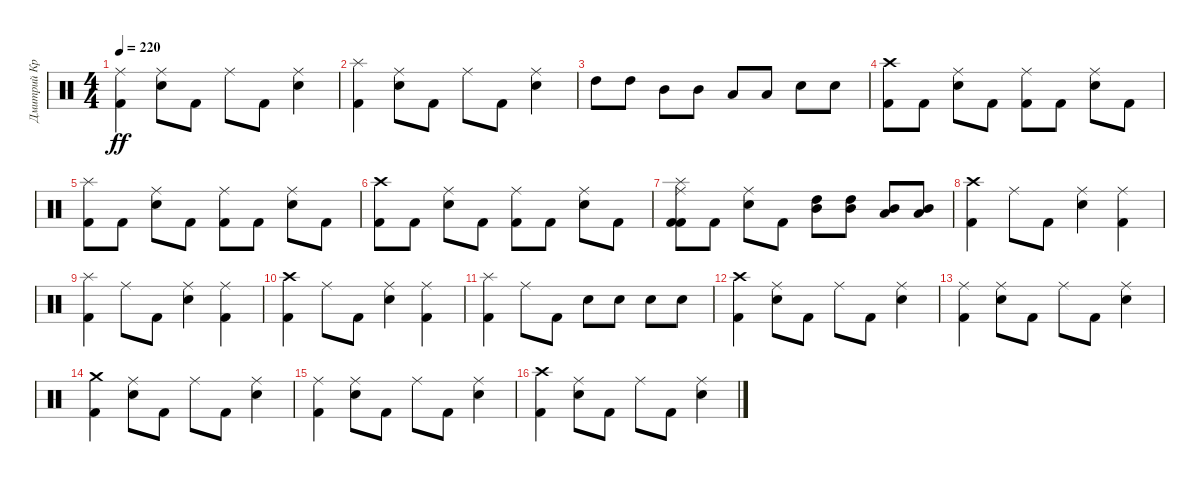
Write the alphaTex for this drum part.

\track ("Дмитрий Кривенков" "Дмитрий Кр") {instrument percussion}
\staff {score}
\articulation defaults
\ts (4 4)
\tempo 220
\clef neutral
\ks c
("Kick (hit) 2" "Ride (middle)").4{dy ff} ("Snare (hit) 2" "Ride (middle)").8 "Kick (hit) 2".8 "Ride (middle)".8 "Kick (hit) 2".8 ("Snare (hit) 2" "Ride (middle)").4 |
("Splash (hit)" "Kick (hit) 2").4 ("Ride (middle)" "Snare (hit) 2").8 "Kick (hit) 2".8 "Ride (middle)".8 "Kick (hit) 2".8 ("Ride (middle)" "Snare (hit) 2").4 |
"High Tom (hit)".8 "High Tom (hit)".8 "Mid Tom (hit)".8 "Mid Tom (hit)".8 "Low Tom (hit)".8 "Low Tom (hit)".8 "Snare (hit) 2".8 "Snare (hit) 2".8 |
("Crash high (hit)" "Kick (hit) 2").8 "Kick (hit) 2".8 ("Ride (middle)" "Snare (hit) 2").8 "Kick (hit) 2".8 ("Ride (middle)" "Kick (hit) 2").8 "Kick (hit) 2".8 ("Snare (hit) 2" "Ride (middle)").8 "Kick (hit) 2".8 |
("Kick (hit) 2" "Splash (hit)").8 "Kick (hit) 2".8 ("Snare (hit) 2" "Ride (middle)").8 "Kick (hit) 2".8 ("Kick (hit) 2" "Ride (middle)").8 "Kick (hit) 2".8 ("Snare (hit) 2" "Ride (middle)").8 "Kick (hit) 2".8 |
("Crash high (hit)" "Kick (hit) 2").8 "Kick (hit) 2".8 ("Ride (middle)" "Snare (hit) 2").8 "Kick (hit) 2".8 ("Ride (middle)" "Kick (hit) 2").8 "Kick (hit) 2".8 ("Snare (hit) 2" "Ride (middle)").8 "Kick (hit) 2".8 |
("Ride (middle)" "Kick (hit) 2" "Kick (hit) 2" "Splash (hit)").8 "Kick (hit) 2".8 ("Ride (middle)" "Snare (hit) 2").8 "Kick (hit) 2".8 ("Mid Tom (hit)" "High Tom (hit)").8 ("Mid Tom (hit)" "High Tom (hit)").8 ("Low Tom (hit)" "Mid Tom (hit)").8 ("Low Tom (hit)" "Mid Tom (hit)").8 |
("Kick (hit) 2" "Crash high (hit)").4 "Ride (middle)".8 "Kick (hit) 2".8 ("Snare (hit) 2" "Ride (middle)").4 ("Kick (hit) 2" "Ride (middle)").4 |
("Splash (hit)" "Kick (hit) 2").4 "Ride (middle)".8 "Kick (hit) 2".8 ("Ride (middle)" "Snare (hit) 2").4 ("Ride (middle)" "Kick (hit) 2").4 |
("Kick (hit) 2" "Crash high (hit)").4 "Ride (middle)".8 "Kick (hit) 2".8 ("Snare (hit) 2" "Ride (middle)").4 ("Kick (hit) 2" "Ride (middle)").4 |
("Splash (hit)" "Kick (hit) 2").4 "Ride (middle)".8 "Kick (hit) 2".8 "Snare (hit) 2".8 "Snare (hit) 2".8 "Snare (hit) 2".8 "Snare (hit) 2".8 |
("Crash high (hit)" "Kick (hit) 2").4 ("Ride (middle)" "Snare (hit) 2").8 "Kick (hit) 2".8 "Ride (middle)".8 "Kick (hit) 2".8 ("Ride (middle)" "Snare (hit) 2").4 |
("Kick (hit) 2" "Ride (middle)").4 ("Snare (hit) 2" "Ride (middle)").8 "Kick (hit) 2".8 "Ride (middle)".8 "Kick (hit) 2".8 ("Snare (hit) 2" "Ride (middle)").4 |
("Crash medium (hit)" "Kick (hit) 2").4 ("Ride (middle)" "Snare (hit) 2").8 "Kick (hit) 2".8 "Ride (middle)".8 "Kick (hit) 2".8 ("Ride (middle)" "Snare (hit) 2").4 |
("Kick (hit) 2" "Ride (middle)").4 ("Snare (hit) 2" "Ride (middle)").8 "Kick (hit) 2".8 "Ride (middle)".8 "Kick (hit) 2".8 ("Snare (hit) 2" "Ride (middle)").4 |
("Crash high (hit)" "Kick (hit) 2").4 ("Ride (middle)" "Snare (hit) 2").8 "Kick (hit) 2".8 "Ride (middle)".8 "Kick (hit) 2".8 ("Ride (middle)" "Snare (hit) 2").4
